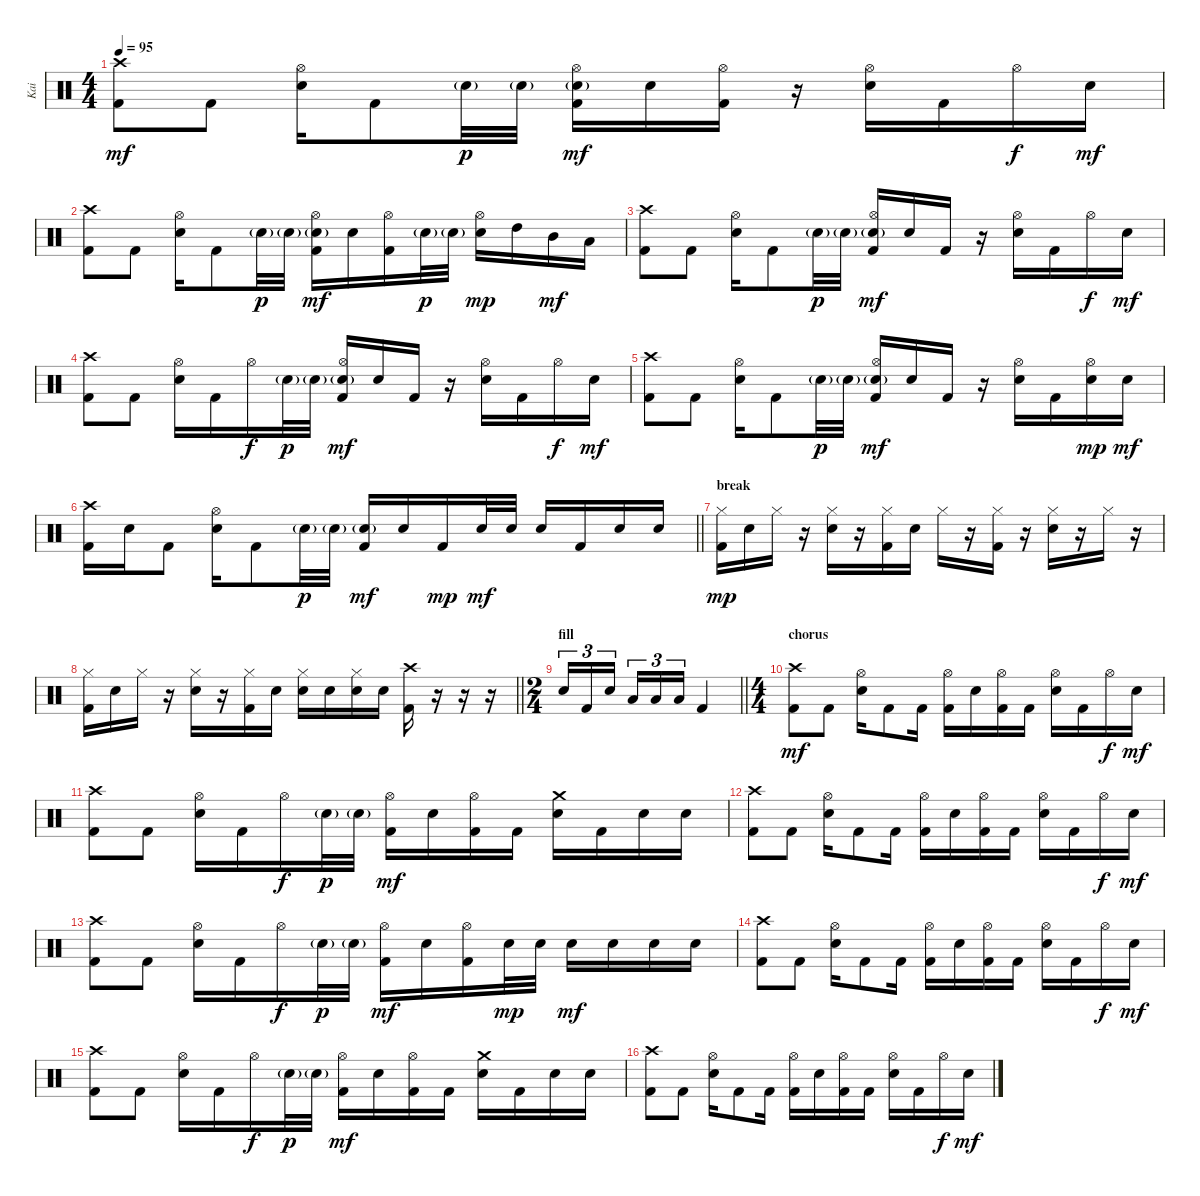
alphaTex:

\track ("Kai" "Kai") {instrument percussion}
\staff {score}
\articulation defaults
\ts (4 4)
\tempo 95
\clef neutral
\ks c
("Crash high (hit)" "Kick (hit) 2").8{dy mf} "Kick (hit) 2".8 ("Hi-Hat (open)" "Electric Snare (hit)").16 "Kick (hit) 2".8 "Electric Snare (hit)"{g}.32{dy p} "Electric Snare (hit)"{g}.32 ("Hi-Hat (open)" "Electric Snare (hit)"{g} "Kick (hit) 2").16{dy mf} "Electric Snare (hit)".16 ("Hi-Hat (open)" "Kick (hit) 2").16 r.16 ("Hi-Hat (open)" "Electric Snare (hit)").16 "Kick (hit) 2".16 "Hi-Hat (open)".16{dy f} "Electric Snare (hit)".16{dy mf} |
("Crash high (hit)" "Kick (hit) 2").8 "Kick (hit) 2".8 ("Hi-Hat (open)" "Electric Snare (hit)").16 "Kick (hit) 2".8 "Electric Snare (hit)"{g}.32{dy p} "Electric Snare (hit)"{g}.32 ("Hi-Hat (open)" "Electric Snare (hit)"{g} "Kick (hit) 2").16{dy mf} "Electric Snare (hit)".16 ("Hi-Hat (open)" "Kick (hit) 2").16 "Electric Snare (hit)"{g}.32{dy p} "Electric Snare (hit)"{g}.32 ("Hi-Hat (open)" "Electric Snare (hit)").16{dy mp} "High Tom (hit)".16 "Mid Tom (hit)".16{dy mf} "Low Tom (hit)".16 |
("Crash high (hit)" "Kick (hit) 2").8 "Kick (hit) 2".8 ("Hi-Hat (open)" "Electric Snare (hit)").16 "Kick (hit) 2".8 "Electric Snare (hit)"{g}.32{dy p} "Electric Snare (hit)"{g}.32 ("Hi-Hat (open)" "Electric Snare (hit)"{g} "Kick (hit) 2").16{dy mf} "Electric Snare (hit)".16 "Kick (hit) 2".16 r.16 ("Hi-Hat (open)" "Electric Snare (hit)").16 "Kick (hit) 2".16 "Hi-Hat (open)".16{dy f} "Electric Snare (hit)".16{dy mf} |
("Crash high (hit)" "Kick (hit) 2").8 "Kick (hit) 2".8 ("Hi-Hat (open)" "Electric Snare (hit)").16 "Kick (hit) 2".16 "Hi-Hat (open)".16{dy f} "Electric Snare (hit)"{g}.32{dy p} "Electric Snare (hit)"{g}.32 ("Hi-Hat (open)" "Electric Snare (hit)"{g} "Kick (hit) 2").16{dy mf} "Electric Snare (hit)".16 "Kick (hit) 2".16 r.16 ("Hi-Hat (open)" "Electric Snare (hit)").16 "Kick (hit) 2".16 "Hi-Hat (open)".16{dy f} "Electric Snare (hit)".16{dy mf} |
("Crash high (hit)" "Kick (hit) 2").8 "Kick (hit) 2".8 ("Hi-Hat (open)" "Electric Snare (hit)").16 "Kick (hit) 2".8 "Electric Snare (hit)"{g}.32{dy p} "Electric Snare (hit)"{g}.32 ("Hi-Hat (open)" "Electric Snare (hit)"{g} "Kick (hit) 2").16{dy mf} "Electric Snare (hit)".16 "Kick (hit) 2".16 r.16 ("Hi-Hat (open)" "Electric Snare (hit)").16 "Kick (hit) 2".16 ("Hi-Hat (open)" "Electric Snare (hit)").16{dy mp} "Electric Snare (hit)".16{dy mf} |
\barLineRight lightlight
("Crash high (hit)" "Kick (hit) 2").16 "Electric Snare (hit)".16 "Kick (hit) 2".8 ("Hi-Hat (open)" "Electric Snare (hit)").16 "Kick (hit) 2".8 "Electric Snare (hit)"{g}.32{dy p} "Electric Snare (hit)"{g}.32 ("Electric Snare (hit)"{g} "Kick (hit) 2").16{dy mf} "Electric Snare (hit)".16 "Kick (hit) 2".16{dy mp} "Electric Snare (hit)".32{dy mf} "Electric Snare (hit)".32 "Electric Snare (hit)".16 "Kick (hit) 2".16 "Electric Snare (hit)".16 "Electric Snare (hit)".16 |
\section ("" "break")
("Hi-Hat (closed)" "Kick (hit) 2").16{dy mp} "Electric Snare (hit)".16 "Hi-Hat (closed)".16 r.16 ("Hi-Hat (closed)" "Electric Snare (hit)").16 r.16 ("Hi-Hat (closed)" "Kick (hit) 2").16 "Electric Snare (hit)".16 "Hi-Hat (closed)".16 r.16 ("Hi-Hat (closed)" "Kick (hit) 2").16 r.16 ("Hi-Hat (closed)" "Electric Snare (hit)").16 r.16 "Hi-Hat (closed)".16 r.16 |
\barLineRight lightlight
("Hi-Hat (closed)" "Kick (hit) 2").16 "Electric Snare (hit)".16 "Hi-Hat (closed)".16 r.16 ("Hi-Hat (closed)" "Electric Snare (hit)").16 r.16 ("Hi-Hat (closed)" "Kick (hit) 2").16 "Electric Snare (hit)".16 ("Hi-Hat (closed)" "Snare (hit) 2").16 "Snare (hit) 2".16 ("Hi-Hat (closed)" "Snare (hit) 2").16 "Snare (hit) 2".16 ("Crash high (hit)" "Kick (hit) 2").16 r.16 r.16 r.16 |
\ts (2 4)
\section ("" "fill")
\barLineRight lightlight "Electric Snare (hit)".16{tu (3 2)} "Kick (hit) 2".16{tu (3 2)} "Electric Snare (hit)".16{tu (3 2) beam splitsecondary} "Low Tom (hit)".16{tu (3 2)} "Low Floor Tom (hit)".16{tu (3 2)} "Low Floor Tom (hit)".16{tu (3 2)} "Kick (hit) 2".4
|
\ts (4 4)
\section ("" "chorus")
("Crash high (hit)" "Kick (hit) 2").8{dy mf} "Kick (hit) 2".8 ("Hi-Hat (open)" "Electric Snare (hit)").16 "Kick (hit) 2".8 "Kick (hit) 2".16 ("Hi-Hat (open)" "Kick (hit) 2").16 "Electric Snare (hit)".16 ("Hi-Hat (open)" "Kick (hit) 2").16 "Kick (hit) 2".16 ("Hi-Hat (open)" "Electric Snare (hit)").16 "Kick (hit) 2".16 "Hi-Hat (open)".16{dy f} "Electric Snare (hit)".16{dy mf} |
("Crash high (hit)" "Kick (hit) 2").8 "Kick (hit) 2".8 ("Hi-Hat (open)" "Electric Snare (hit)").16 "Kick (hit) 2".16 "Hi-Hat (open)".16{dy f} "Electric Snare (hit)"{g}.32{dy p} "Electric Snare (hit)"{g}.32 ("Hi-Hat (open)" "Kick (hit) 2").16{dy mf} "Electric Snare (hit)".16 ("Hi-Hat (open)" "Kick (hit) 2").16 "Kick (hit) 2".16 ("Crash medium (hit)" "Electric Snare (hit)").16 "Kick (hit) 2".16 "Electric Snare (hit)".16 "Electric Snare (hit)".16 |
("Crash high (hit)" "Kick (hit) 2").8 "Kick (hit) 2".8 ("Hi-Hat (open)" "Electric Snare (hit)").16 "Kick (hit) 2".8 "Kick (hit) 2".16 ("Hi-Hat (open)" "Kick (hit) 2").16 "Electric Snare (hit)".16 ("Hi-Hat (open)" "Kick (hit) 2").16 "Kick (hit) 2".16 ("Hi-Hat (open)" "Electric Snare (hit)").16 "Kick (hit) 2".16 "Hi-Hat (open)".16{dy f} "Electric Snare (hit)".16{dy mf} |
("Crash high (hit)" "Kick (hit) 2").8 "Kick (hit) 2".8 ("Hi-Hat (open)" "Electric Snare (hit)").16 "Kick (hit) 2".16 "Hi-Hat (open)".16{dy f} "Electric Snare (hit)"{g}.32{dy p} "Electric Snare (hit)"{g}.32 ("Hi-Hat (open)" "Kick (hit) 2").16{dy mf} "Electric Snare (hit)".16 ("Hi-Hat (open)" "Kick (hit) 2").16 "Electric Snare (hit)".32{dy mp} "Electric Snare (hit)".32 "Electric Snare (hit)".16{dy mf} "Electric Snare (hit)".16 "Electric Snare (hit)".16 "Electric Snare (hit)".16 |
("Crash high (hit)" "Kick (hit) 2").8 "Kick (hit) 2".8 ("Hi-Hat (open)" "Electric Snare (hit)").16 "Kick (hit) 2".8 "Kick (hit) 2".16 ("Hi-Hat (open)" "Kick (hit) 2").16 "Electric Snare (hit)".16 ("Hi-Hat (open)" "Kick (hit) 2").16 "Kick (hit) 2".16 ("Hi-Hat (open)" "Electric Snare (hit)").16 "Kick (hit) 2".16 "Hi-Hat (open)".16{dy f} "Electric Snare (hit)".16{dy mf} |
("Crash high (hit)" "Kick (hit) 2").8 "Kick (hit) 2".8 ("Hi-Hat (open)" "Electric Snare (hit)").16 "Kick (hit) 2".16 "Hi-Hat (open)".16{dy f} "Electric Snare (hit)"{g}.32{dy p} "Electric Snare (hit)"{g}.32 ("Hi-Hat (open)" "Kick (hit) 2").16{dy mf} "Electric Snare (hit)".16 ("Hi-Hat (open)" "Kick (hit) 2").16 "Kick (hit) 2".16 ("Crash medium (hit)" "Electric Snare (hit)").16 "Kick (hit) 2".16 "Electric Snare (hit)".16 "Electric Snare (hit)".16 |
("Crash high (hit)" "Kick (hit) 2").8 "Kick (hit) 2".8 ("Hi-Hat (open)" "Electric Snare (hit)").16 "Kick (hit) 2".8 "Kick (hit) 2".16 ("Hi-Hat (open)" "Kick (hit) 2").16 "Electric Snare (hit)".16 ("Hi-Hat (open)" "Kick (hit) 2").16 "Kick (hit) 2".16 ("Hi-Hat (open)" "Electric Snare (hit)").16 "Kick (hit) 2".16 "Hi-Hat (open)".16{dy f} "Electric Snare (hit)".16{dy mf}
